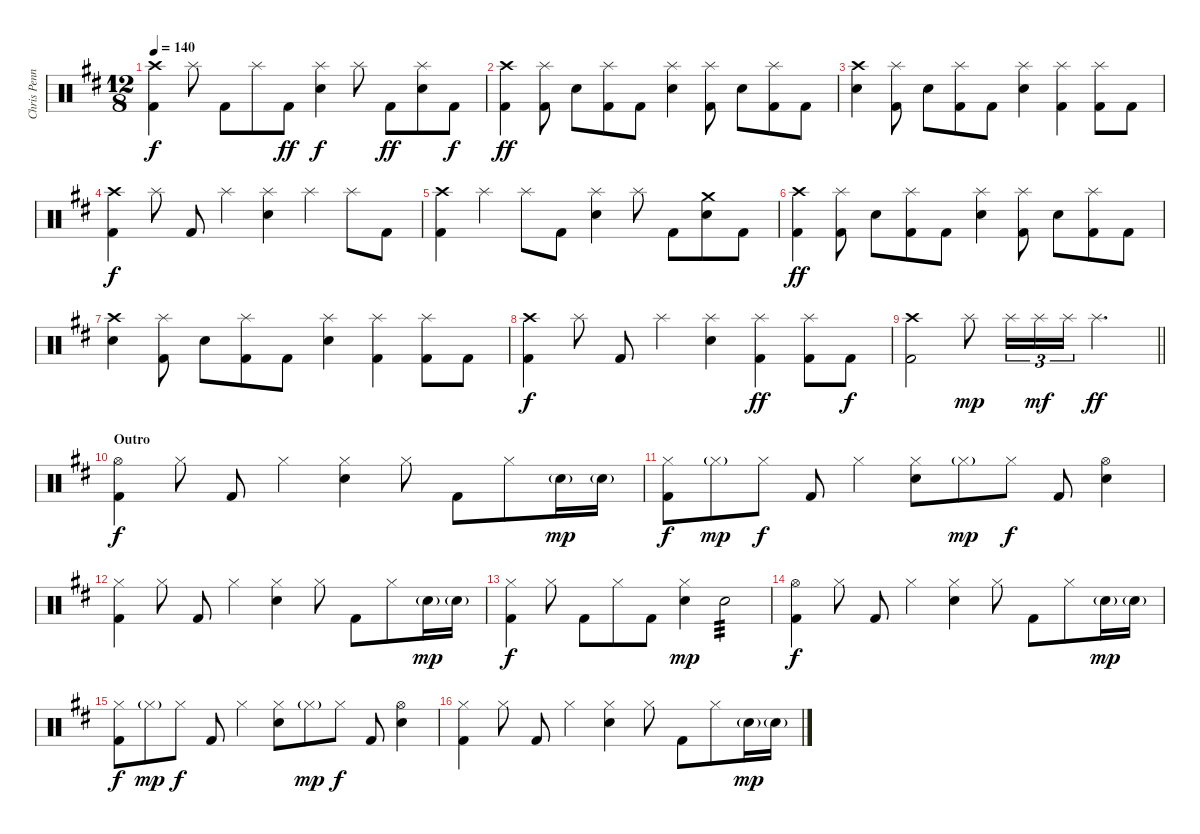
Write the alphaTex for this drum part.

\track ("Chris Pennie/Taylor Hawkins - Drums" "Chris Penn") {instrument percussion}
\staff {score}
\articulation defaults
\ts (12 8)
\tempo 140
\clef neutral
\ks bminor
("Crash high (hit)" "Kick (hit) 2").4{dy f} "Splash (hit)".8 "Kick (hit) 2".8 "Splash (hit)".8 "Kick (hit) 2".8{dy ff} ("Splash (hit)" "Electric Snare (hit)").4{dy f} "Splash (hit)".8 "Kick (hit) 2".8{dy ff} ("Splash (hit)" "Electric Snare (hit)").8 "Kick (hit) 2".8{dy f} |
("Crash high (hit)" "Kick (hit) 2").4{dy ff} ("Splash (hit)" "Kick (hit) 2").8 "Electric Snare (hit)".8 ("Splash (hit)" "Kick (hit) 2").8 "Kick (hit) 2".8 ("Splash (hit)" "Electric Snare (hit)").4 ("Splash (hit)" "Kick (hit) 2").8 "Electric Snare (hit)".8 ("Splash (hit)" "Kick (hit) 2").8 "Kick (hit) 2".8 |
("Crash high (hit)" "Electric Snare (hit)").4 ("Splash (hit)" "Kick (hit) 2").8 "Electric Snare (hit)".8 ("Splash (hit)" "Kick (hit) 2").8 "Kick (hit) 2".8 ("Splash (hit)" "Electric Snare (hit)").4 ("Splash (hit)" "Kick (hit) 2").4 ("Splash (hit)" "Kick (hit) 2").8 "Kick (hit) 2".8 |
("Crash high (hit)" "Kick (hit) 2").4{dy f} "Splash (hit)".8 "Kick (hit) 2".8 "Splash (hit)".4 ("Splash (hit)" "Electric Snare (hit)").4 "Splash (hit)".4 "Splash (hit)".8 "Kick (hit) 2".8 |
("Crash high (hit)" "Kick (hit) 2").4 "Splash (hit)".4 "Splash (hit)".8 "Kick (hit) 2".8 ("Splash (hit)" "Electric Snare (hit)").4 "Splash (hit)".8 "Kick (hit) 2".8 ("Crash medium (hit)" "Electric Snare (hit)").8 "Kick (hit) 2".8 |
("Crash high (hit)" "Kick (hit) 2").4{dy ff} ("Splash (hit)" "Kick (hit) 2").8 "Electric Snare (hit)".8 ("Splash (hit)" "Kick (hit) 2").8 "Kick (hit) 2".8 ("Splash (hit)" "Electric Snare (hit)").4 ("Splash (hit)" "Kick (hit) 2").8 "Electric Snare (hit)".8 ("Splash (hit)" "Kick (hit) 2").8 "Kick (hit) 2".8 |
("Crash high (hit)" "Electric Snare (hit)").4 ("Splash (hit)" "Kick (hit) 2").8 "Electric Snare (hit)".8 ("Splash (hit)" "Kick (hit) 2").8 "Kick (hit) 2".8 ("Splash (hit)" "Electric Snare (hit)").4 ("Splash (hit)" "Kick (hit) 2").4 ("Splash (hit)" "Kick (hit) 2").8 "Kick (hit) 2".8 |
("Crash high (hit)" "Kick (hit) 2").4{dy f} "Splash (hit)".8 "Kick (hit) 2".8 "Splash (hit)".4 ("Splash (hit)" "Electric Snare (hit)").4 ("Splash (hit)" "Kick (hit) 2").4{dy ff} ("Splash (hit)" "Kick (hit) 2").8 "Kick (hit) 2".8{dy f} |
\barLineRight lightlight
("Crash high (hit)" "Kick (hit) 2").2 "Splash (hit)".8{dy mp} "Splash (hit)".16{tu (3 2)} "Splash (hit)".16{tu (3 2) dy mf} "Splash (hit)".16{tu (3 2)} "Splash (hit)".2{d dy ff} |
\section ("" "Outro")
("Hi-Hat (open)" "Kick (hit) 2").4{dy f} "Hi-Hat (closed)".8 "Kick (hit) 2".8 "Hi-Hat (closed)".4 ("Hi-Hat (closed)" "Electric Snare (hit)").4 "Hi-Hat (closed)".8 "Kick (hit) 2".8 "Hi-Hat (closed)".8 "Electric Snare (hit)"{g}.16{dy mp} "Electric Snare (hit)"{g}.16 |
("Hi-Hat (closed)" "Kick (hit) 2").8{dy f} "Hi-Hat (closed)"{g}.8{dy mp} "Hi-Hat (closed)".8{dy f} "Kick (hit) 2".8 "Hi-Hat (closed)".4 ("Hi-Hat (closed)" "Electric Snare (hit)").8 "Hi-Hat (closed)"{g}.8{dy mp} "Hi-Hat (closed)".8{dy f} "Kick (hit) 2".8 ("Hi-Hat (open)" "Electric Snare (hit)").4 |
("Hi-Hat (closed)" "Kick (hit) 2").4 "Hi-Hat (closed)".8 "Kick (hit) 2".8 "Hi-Hat (closed)".4 ("Hi-Hat (closed)" "Electric Snare (hit)").4 "Hi-Hat (closed)".8 "Kick (hit) 2".8 "Hi-Hat (closed)".8 "Electric Snare (hit)"{g}.16{dy mp} "Electric Snare (hit)"{g}.16 |
("Hi-Hat (closed)" "Kick (hit) 2").4{dy f} "Hi-Hat (closed)".8 "Kick (hit) 2".8 "Hi-Hat (closed)".8 "Kick (hit) 2".8 ("Hi-Hat (closed)" "Electric Snare (hit)").4{dy mp} "Electric Snare (hit)".2{tp 3} |
("Hi-Hat (open)" "Kick (hit) 2").4{dy f} "Hi-Hat (closed)".8 "Kick (hit) 2".8 "Hi-Hat (closed)".4 ("Hi-Hat (closed)" "Electric Snare (hit)").4 "Hi-Hat (closed)".8 "Kick (hit) 2".8 "Hi-Hat (closed)".8 "Electric Snare (hit)"{g}.16{dy mp} "Electric Snare (hit)"{g}.16 |
("Hi-Hat (closed)" "Kick (hit) 2").8{dy f} "Hi-Hat (closed)"{g}.8{dy mp} "Hi-Hat (closed)".8{dy f} "Kick (hit) 2".8 "Hi-Hat (closed)".4 ("Hi-Hat (closed)" "Electric Snare (hit)").8 "Hi-Hat (closed)"{g}.8{dy mp} "Hi-Hat (closed)".8{dy f} "Kick (hit) 2".8 ("Hi-Hat (open)" "Electric Snare (hit)").4 |
("Hi-Hat (closed)" "Kick (hit) 2").4 "Hi-Hat (closed)".8 "Kick (hit) 2".8 "Hi-Hat (closed)".4 ("Hi-Hat (closed)" "Electric Snare (hit)").4 "Hi-Hat (closed)".8 "Kick (hit) 2".8 "Hi-Hat (closed)".8 "Electric Snare (hit)"{g}.16{dy mp} "Electric Snare (hit)"{g}.16
